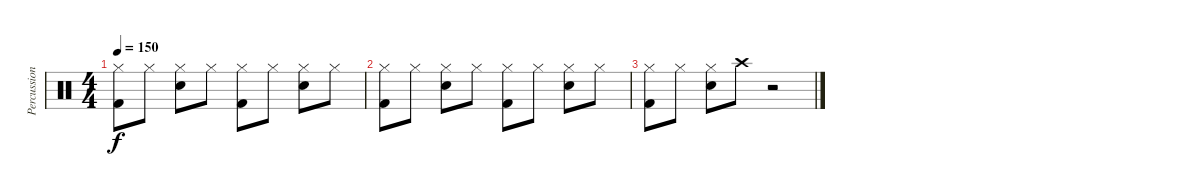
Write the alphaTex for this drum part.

\track ("Percussion" "Percussion") {instrument percussion}
\staff {score}
\articulation defaults
\ts (4 4)
\tempo 150
\clef neutral
\ks c
("Hi-Hat (closed)" "Kick (hit) 2").8{dy f} "Hi-Hat (closed)".8 ("Hi-Hat (closed)" "Snare (hit) 2").8 "Hi-Hat (closed)".8 ("Hi-Hat (closed)" "Kick (hit) 2").8 "Hi-Hat (closed)".8 ("Hi-Hat (closed)" "Snare (hit) 2").8 "Hi-Hat (closed)".8 |
("Hi-Hat (closed)" "Kick (hit) 2").8 "Hi-Hat (closed)".8 ("Hi-Hat (closed)" "Snare (hit) 2").8 "Hi-Hat (closed)".8 ("Hi-Hat (closed)" "Kick (hit) 2").8 "Hi-Hat (closed)".8 ("Hi-Hat (closed)" "Snare (hit) 2").8 "Hi-Hat (closed)".8 |
("Hi-Hat (closed)" "Kick (hit) 2").8 "Hi-Hat (closed)".8 ("Hi-Hat (closed)" "Snare (hit) 2").8 "Crash high (hit)".8 r.2
